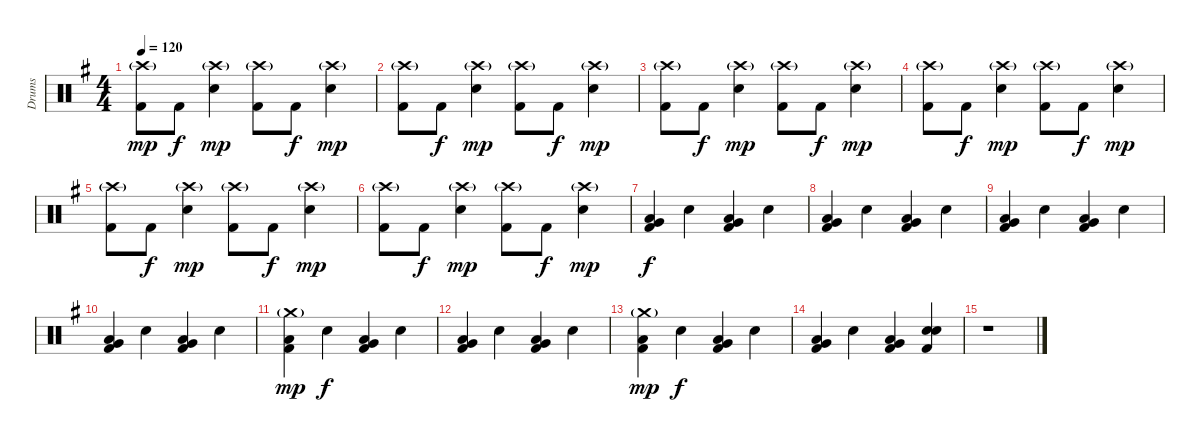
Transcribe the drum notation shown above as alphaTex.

\track ("Drums" "Drums") {instrument percussion}
\staff {score}
\articulation defaults
\ts (4 4)
\tempo 120
\clef neutral
\ks eminor
("Crash high (hit)"{g} "Kick (hit) 2").8{dy mp} "Kick (hit) 2".8{dy f} ("Crash high (hit)"{g} "Snare (hit) 2").4{dy mp} ("Crash high (hit)"{g} "Kick (hit) 2").8 "Kick (hit) 2".8{dy f} ("Crash high (hit)"{g} "Snare (hit) 2").4{dy mp} |
("Crash high (hit)"{g} "Kick (hit) 2").8 "Kick (hit) 2".8{dy f} ("Crash high (hit)"{g} "Snare (hit) 2").4{dy mp} ("Crash high (hit)"{g} "Kick (hit) 2").8 "Kick (hit) 2".8{dy f} ("Crash high (hit)"{g} "Snare (hit) 2").4{dy mp} |
("Crash high (hit)"{g} "Kick (hit) 2").8 "Kick (hit) 2".8{dy f} ("Crash high (hit)"{g} "Snare (hit) 2").4{dy mp} ("Crash high (hit)"{g} "Kick (hit) 2").8 "Kick (hit) 2".8{dy f} ("Crash high (hit)"{g} "Snare (hit) 2").4{dy mp} |
("Crash high (hit)"{g} "Kick (hit) 2").8 "Kick (hit) 2".8{dy f} ("Crash high (hit)"{g} "Snare (hit) 2").4{dy mp} ("Crash high (hit)"{g} "Kick (hit) 2").8 "Kick (hit) 2".8{dy f} ("Crash high (hit)"{g} "Snare (hit) 2").4{dy mp} |
("Crash high (hit)"{g} "Kick (hit) 2").8 "Kick (hit) 2".8{dy f} ("Crash high (hit)"{g} "Snare (hit) 2").4{dy mp} ("Crash high (hit)"{g} "Kick (hit) 2").8 "Kick (hit) 2".8{dy f} ("Crash high (hit)"{g} "Snare (hit) 2").4{dy mp} |
("Crash high (hit)"{g} "Kick (hit) 2").8 "Kick (hit) 2".8{dy f} ("Crash high (hit)"{g} "Snare (hit) 2").4{dy mp} ("Crash high (hit)"{g} "Kick (hit) 2").8 "Kick (hit) 2".8{dy f} ("Crash high (hit)"{g} "Snare (hit) 2").4{dy mp} |
("Very Low Tom (hit)" "Low Floor Tom (hit)" "Kick (hit) 2").4{dy f} "Snare (hit) 2".4 ("Very Low Tom (hit)" "Low Floor Tom (hit)" "Kick (hit) 2").4 "Snare (hit) 2".4 |
("Very Low Tom (hit)" "Low Floor Tom (hit)" "Kick (hit) 2").4 "Snare (hit) 2".4 ("Very Low Tom (hit)" "Low Floor Tom (hit)" "Kick (hit) 2").4 "Snare (hit) 2".4 |
("Very Low Tom (hit)" "Low Floor Tom (hit)" "Kick (hit) 2").4 "Snare (hit) 2".4 ("Very Low Tom (hit)" "Low Floor Tom (hit)" "Kick (hit) 2").4 "Snare (hit) 2".4 |
("Very Low Tom (hit)" "Low Floor Tom (hit)" "Kick (hit) 2").4 "Snare (hit) 2".4 ("Very Low Tom (hit)" "Low Floor Tom (hit)" "Kick (hit) 2").4 "Snare (hit) 2".4 |
("Crash medium (hit)"{g} "Low Floor Tom (hit)" "Kick (hit) 2").4{dy mp} "Snare (hit) 2".4{dy f} ("Very Low Tom (hit)" "Low Floor Tom (hit)" "Kick (hit) 2").4 "Snare (hit) 2".4 |
("Very Low Tom (hit)" "Low Floor Tom (hit)" "Kick (hit) 2").4 "Snare (hit) 2".4 ("Very Low Tom (hit)" "Low Floor Tom (hit)" "Kick (hit) 2").4 "Snare (hit) 2".4 |
("Crash medium (hit)"{g} "Low Floor Tom (hit)" "Kick (hit) 2").4{dy mp} "Snare (hit) 2".4{dy f} ("Very Low Tom (hit)" "Low Floor Tom (hit)" "Kick (hit) 2").4 "Snare (hit) 2".4 |
("Very Low Tom (hit)" "Low Floor Tom (hit)" "Kick (hit) 2").4 "Snare (hit) 2".4 ("Very Low Tom (hit)" "Low Floor Tom (hit)" "Kick (hit) 2").4 ("Snare (hit) 2" "Electric Snare (hit)" "Kick (hit) 2").4 |
r.1
